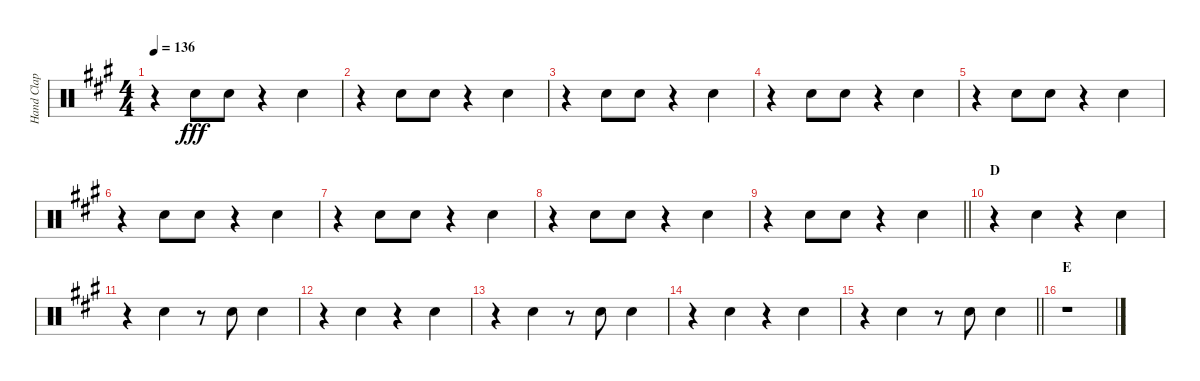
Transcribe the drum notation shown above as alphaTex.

\track ("Hand Clap" "Hand Clap") {instrument percussion}
\staff {score}
\articulation defaults
\ts (4 4)
\tempo 136
\clef neutral
\ks a
r.4{dy fff} "Hand Clap (hit)".8 "Hand Clap (hit)".8 r.4 "Hand Clap (hit)".4 |
r.4 "Hand Clap (hit)".8 "Hand Clap (hit)".8 r.4 "Hand Clap (hit)".4 |
r.4 "Hand Clap (hit)".8 "Hand Clap (hit)".8 r.4 "Hand Clap (hit)".4 |
r.4 "Hand Clap (hit)".8 "Hand Clap (hit)".8 r.4 "Hand Clap (hit)".4 |
r.4 "Hand Clap (hit)".8 "Hand Clap (hit)".8 r.4 "Hand Clap (hit)".4 |
r.4 "Hand Clap (hit)".8 "Hand Clap (hit)".8 r.4 "Hand Clap (hit)".4 |
r.4 "Hand Clap (hit)".8 "Hand Clap (hit)".8 r.4 "Hand Clap (hit)".4 |
r.4 "Hand Clap (hit)".8 "Hand Clap (hit)".8 r.4 "Hand Clap (hit)".4 |
\barLineRight lightlight
r.4 "Hand Clap (hit)".8 "Hand Clap (hit)".8 r.4 "Hand Clap (hit)".4 |
\section ("" "D")
r.4 "Hand Clap (hit)".4 r.4 "Hand Clap (hit)".4 |
r.4 "Hand Clap (hit)".4 r.8 "Hand Clap (hit)".8 "Hand Clap (hit)".4 |
r.4 "Hand Clap (hit)".4 r.4 "Hand Clap (hit)".4 |
r.4 "Hand Clap (hit)".4 r.8 "Hand Clap (hit)".8 "Hand Clap (hit)".4 |
r.4 "Hand Clap (hit)".4 r.4 "Hand Clap (hit)".4 |
\barLineRight lightlight
r.4 "Hand Clap (hit)".4 r.8 "Hand Clap (hit)".8 "Hand Clap (hit)".4 |
\section ("" "E")
r.1
